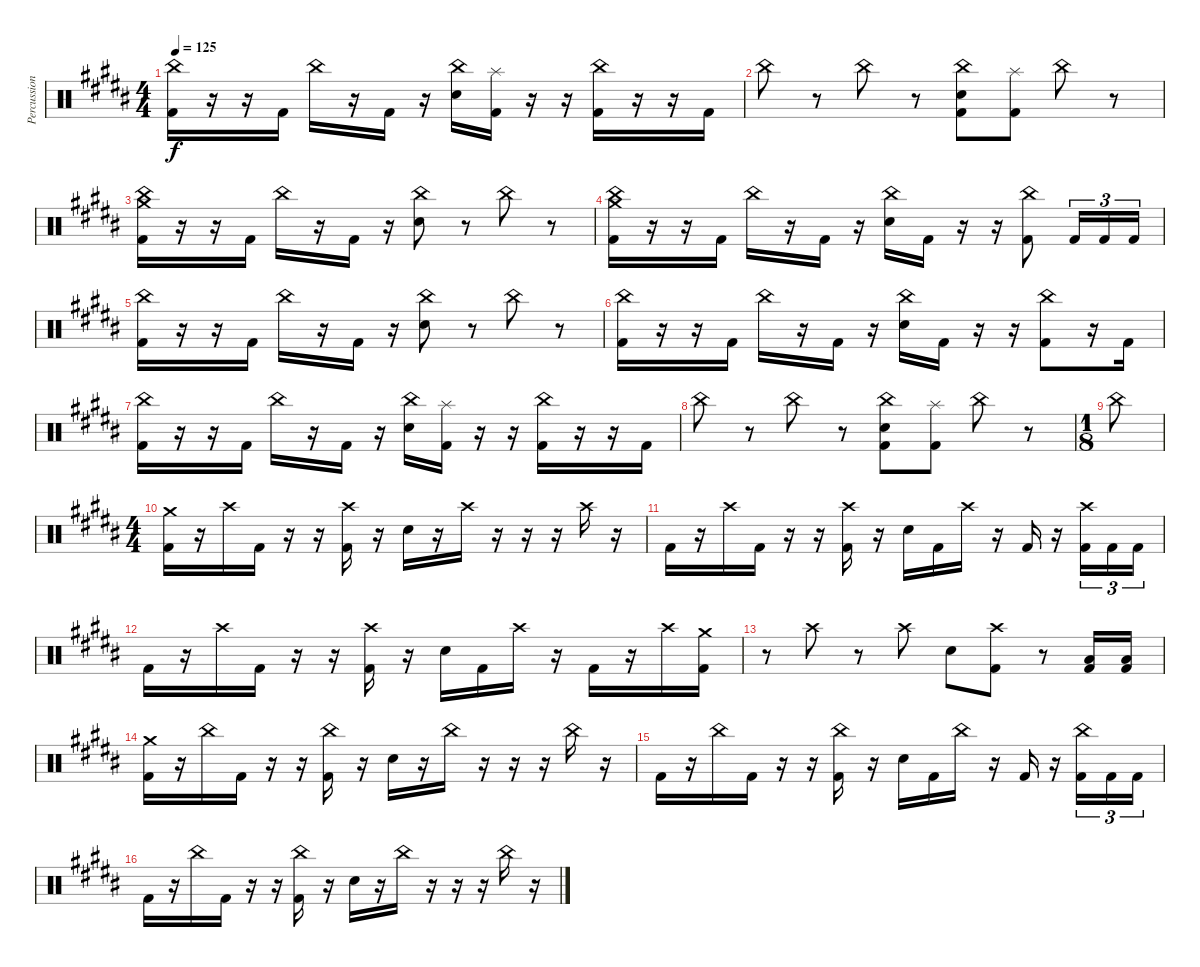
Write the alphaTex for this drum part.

\track ("Percussion" "Percussion") {instrument percussion}
\staff {score}
\articulation defaults
\ts (4 4)
\tempo 125
\clef neutral
\ks g#minor
("China (hit)" "Kick (hit) 2").16{dy f} r.16 r.16 "Kick (hit) 2".16 "China (hit)".16 r.16 "Kick (hit) 2".16 r.16 ("China (hit)" "Electric Snare (hit)").16 ("Splash (hit)" "Kick (hit) 2").16 r.16 r.16 ("China (hit)" "Kick (hit) 2").16 r.16 r.16 "Kick (hit) 2".16 |
"China (hit)".8 r.8 "China (hit)".8 r.8 ("China (hit)" "Electric Snare (hit)" "Kick (hit) 2").8 ("Splash (hit)" "Kick (hit) 2").8 "China (hit)".8 r.8 |
("Crash medium (hit)" "China (hit)" "Kick (hit) 2").16 r.16 r.16 "Kick (hit) 2".16 "China (hit)".16 r.16 "Kick (hit) 2".16 r.16 ("China (hit)" "Electric Snare (hit)").8 r.8 "China (hit)".8 r.8 |
("Crash medium (hit)" "China (hit)" "Kick (hit) 2").16 r.16 r.16 "Kick (hit) 2".16 "China (hit)".16 r.16 "Kick (hit) 2".16 r.16 ("China (hit)" "Electric Snare (hit)").16 "Kick (hit) 2".16 r.16 r.16 ("China (hit)" "Kick (hit) 2").8 "Kick (hit) 2".16{tu (3 2)} "Kick (hit) 2".16{tu (3 2)} "Kick (hit) 2".16{tu (3 2)} |
("China (hit)" "Kick (hit) 2").16 r.16 r.16 "Kick (hit) 2".16 "China (hit)".16 r.16 "Kick (hit) 2".16 r.16 ("China (hit)" "Electric Snare (hit)").8 r.8 "China (hit)".8 r.8 |
("China (hit)" "Kick (hit) 2").16 r.16 r.16 "Kick (hit) 2".16 "China (hit)".16 r.16 "Kick (hit) 2".16 r.16 ("China (hit)" "Electric Snare (hit)").16 "Kick (hit) 2".16 r.16 r.16 ("China (hit)" "Kick (hit) 2").8 r.16 "Kick (hit) 2".16 |
("China (hit)" "Kick (hit) 2").16 r.16 r.16 "Kick (hit) 2".16 "China (hit)".16 r.16 "Kick (hit) 2".16 r.16 ("China (hit)" "Electric Snare (hit)").16 ("Splash (hit)" "Kick (hit) 2").16 r.16 r.16 ("China (hit)" "Kick (hit) 2").16 r.16 r.16 "Kick (hit) 2".16 |
"China (hit)".8 r.8 "China (hit)".8 r.8 ("China (hit)" "Electric Snare (hit)" "Kick (hit) 2").8 ("Splash (hit)" "Kick (hit) 2").8 "China (hit)".8 r.8 |
\ts (1 8)
"China (hit)".8 |
\ts (4 4)
("Crash medium (hit)" "Kick (hit) 2").16 r.16 "Crash high (hit)".16 "Kick (hit) 2".16 r.16 r.16 ("Crash high (hit)" "Kick (hit) 2").16 r.16 "Electric Snare (hit)".16 r.16 "Crash high (hit)".16 r.16 r.16 r.16 "Crash high (hit)".16 r.16 |
"Kick (hit) 2".16 r.16 "Crash high (hit)".16 "Kick (hit) 2".16 r.16 r.16 ("Crash high (hit)" "Kick (hit) 2").16 r.16 "Electric Snare (hit)".16 "Kick (hit) 2".16 "Crash high (hit)".16 r.16 "Kick (hit) 2".16 r.16 ("Crash high (hit)" "Kick (hit) 2").16{tu (3 2)} "Kick (hit) 2".16{tu (3 2)} "Kick (hit) 2".16{tu (3 2)} |
"Kick (hit) 2".16 r.16 "Crash high (hit)".16 "Kick (hit) 2".16 r.16 r.16 ("Crash high (hit)" "Kick (hit) 2").16 r.16 "Electric Snare (hit)".16 "Kick (hit) 2".16 "Crash high (hit)".16 r.16 "Kick (hit) 2".16 r.16 "Crash high (hit)".16 ("Crash medium (hit)" "Kick (hit) 2").16 |
r.8 "Crash high (hit)".8 r.8 "Crash high (hit)".8 "Electric Snare (hit)".8 ("Crash high (hit)" "Kick (hit) 2").8 r.8 ("Low Tom (hit)" "Kick (hit) 2").16 ("Low Tom (hit)" "Kick (hit) 2").16 |
("Crash medium (hit)" "Kick (hit) 2").16 r.16 "China (hit)".16 "Kick (hit) 2".16 r.16 r.16 ("China (hit)" "Kick (hit) 2").16 r.16 "Electric Snare (hit)".16 r.16 "China (hit)".16 r.16 r.16 r.16 "China (hit)".16 r.16 |
"Kick (hit) 2".16 r.16 "China (hit)".16 "Kick (hit) 2".16 r.16 r.16 ("China (hit)" "Kick (hit) 2").16 r.16 "Electric Snare (hit)".16 "Kick (hit) 2".16 "China (hit)".16 r.16 "Kick (hit) 2".16 r.16 ("China (hit)" "Kick (hit) 2").16{tu (3 2)} "Kick (hit) 2".16{tu (3 2)} "Kick (hit) 2".16{tu (3 2)} |
"Kick (hit) 2".16 r.16 "China (hit)".16 "Kick (hit) 2".16 r.16 r.16 ("China (hit)" "Kick (hit) 2").16 r.16 "Electric Snare (hit)".16 r.16 "China (hit)".16 r.16 r.16 r.16 "China (hit)".16 r.16
